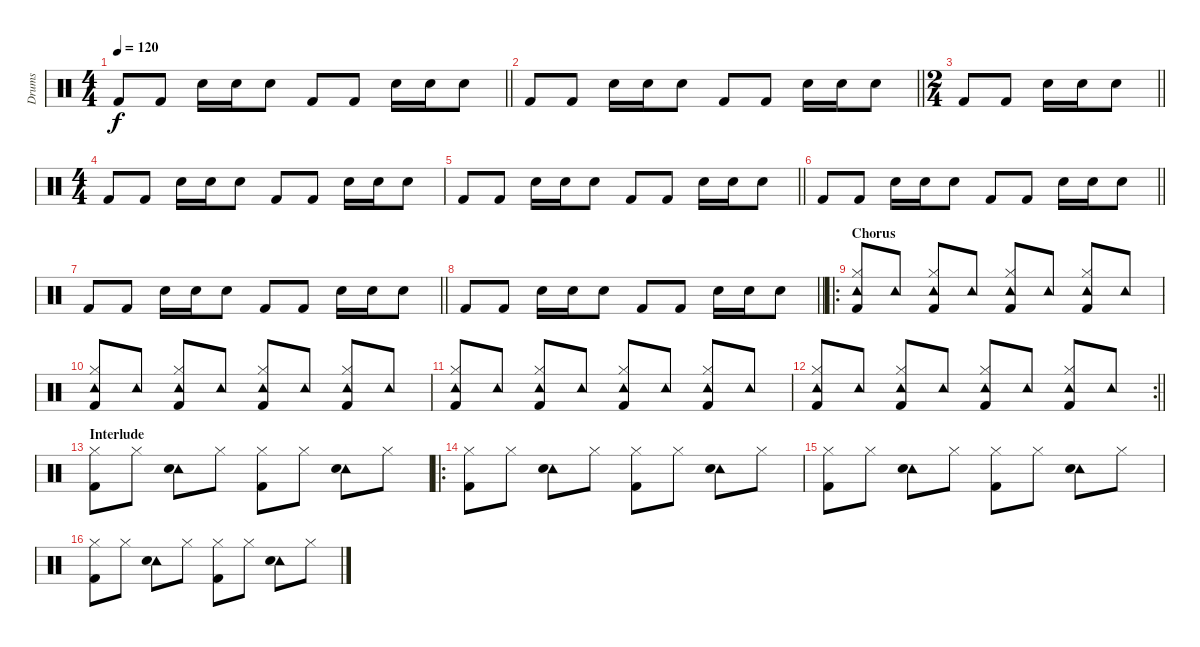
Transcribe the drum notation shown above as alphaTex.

\track ("Drums" "Drums") {instrument percussion}
\staff {score}
\articulation defaults
\ts (4 4)
\tempo 120
\clef neutral
\barLineRight lightlight
\ks c "Kick (hit) 2".8{dy f} "Kick (hit) 2".8 "Snare (hit) 2".16 "Snare (hit) 2".16 "Snare (hit) 2".8 "Kick (hit) 2".8 "Kick (hit) 2".8 "Snare (hit) 2".16 "Snare (hit) 2".16 "Snare (hit) 2".8
|
\barLineRight lightlight "Kick (hit) 2".8 "Kick (hit) 2".8 "Snare (hit) 2".16 "Snare (hit) 2".16 "Snare (hit) 2".8 "Kick (hit) 2".8 "Kick (hit) 2".8 "Snare (hit) 2".16 "Snare (hit) 2".16 "Snare (hit) 2".8
|
\ts (2 4)
\barLineRight lightlight "Kick (hit) 2".8 "Kick (hit) 2".8 "Snare (hit) 2".16 "Snare (hit) 2".16 "Snare (hit) 2".8
|
\ts (4 4)
"Kick (hit) 2".8 "Kick (hit) 2".8 "Snare (hit) 2".16 "Snare (hit) 2".16 "Snare (hit) 2".8 "Kick (hit) 2".8 "Kick (hit) 2".8 "Snare (hit) 2".16 "Snare (hit) 2".16 "Snare (hit) 2".8 |
\barLineRight lightlight "Kick (hit) 2".8 "Kick (hit) 2".8 "Snare (hit) 2".16 "Snare (hit) 2".16 "Snare (hit) 2".8 "Kick (hit) 2".8 "Kick (hit) 2".8 "Snare (hit) 2".16 "Snare (hit) 2".16 "Snare (hit) 2".8
|
\barLineRight lightlight "Kick (hit) 2".8 "Kick (hit) 2".8 "Snare (hit) 2".16 "Snare (hit) 2".16 "Snare (hit) 2".8 "Kick (hit) 2".8 "Kick (hit) 2".8 "Snare (hit) 2".16 "Snare (hit) 2".16 "Snare (hit) 2".8
|
\barLineRight lightlight "Kick (hit) 2".8 "Kick (hit) 2".8 "Snare (hit) 2".16 "Snare (hit) 2".16 "Snare (hit) 2".8 "Kick (hit) 2".8 "Kick (hit) 2".8 "Snare (hit) 2".16 "Snare (hit) 2".16 "Snare (hit) 2".8
|
\barLineRight lightlight "Kick (hit) 2".8 "Kick (hit) 2".8 "Snare (hit) 2".16 "Snare (hit) 2".16 "Snare (hit) 2".8 "Kick (hit) 2".8 "Kick (hit) 2".8 "Snare (hit) 2".16 "Snare (hit) 2".16 "Snare (hit) 2".8
|
\ro
\section ("" "Chorus")
("Hi-Hat (closed)" "Tambourine (hit)" "Kick (hit) 2").8 "Tambourine (hit)".8 ("Hi-Hat (closed)" "Tambourine (hit)" "Kick (hit) 2").8 "Tambourine (hit)".8 ("Hi-Hat (closed)" "Tambourine (hit)" "Kick (hit) 2").8 "Tambourine (hit)".8 ("Hi-Hat (closed)" "Tambourine (hit)" "Kick (hit) 2").8 "Tambourine (hit)".8 |
("Hi-Hat (closed)" "Tambourine (hit)" "Kick (hit) 2").8 "Tambourine (hit)".8 ("Hi-Hat (closed)" "Tambourine (hit)" "Kick (hit) 2").8 "Tambourine (hit)".8 ("Hi-Hat (closed)" "Tambourine (hit)" "Kick (hit) 2").8 "Tambourine (hit)".8 ("Hi-Hat (closed)" "Tambourine (hit)" "Kick (hit) 2").8 "Tambourine (hit)".8 |
("Hi-Hat (closed)" "Tambourine (hit)" "Kick (hit) 2").8 "Tambourine (hit)".8 ("Hi-Hat (closed)" "Tambourine (hit)" "Kick (hit) 2").8 "Tambourine (hit)".8 ("Hi-Hat (closed)" "Tambourine (hit)" "Kick (hit) 2").8 "Tambourine (hit)".8 ("Hi-Hat (closed)" "Tambourine (hit)" "Kick (hit) 2").8 "Tambourine (hit)".8 |
\rc 2
\barLineRight lightlight
("Hi-Hat (closed)" "Tambourine (hit)" "Kick (hit) 2").8 "Tambourine (hit)".8 ("Hi-Hat (closed)" "Tambourine (hit)" "Kick (hit) 2").8 "Tambourine (hit)".8 ("Hi-Hat (closed)" "Tambourine (hit)" "Kick (hit) 2").8 "Tambourine (hit)".8 ("Hi-Hat (closed)" "Tambourine (hit)" "Kick (hit) 2").8 "Tambourine (hit)".8 |
\section ("" "Interlude")
("Hi-Hat (closed)" "Kick (hit) 2").8 "Hi-Hat (closed)".8 ("Tambourine (hit)" "Snare (hit) 2").8 "Hi-Hat (closed)".8 ("Hi-Hat (closed)" "Kick (hit) 2").8 "Hi-Hat (closed)".8 ("Tambourine (hit)" "Snare (hit) 2").8 "Hi-Hat (closed)".8 |
\ro
("Hi-Hat (closed)" "Kick (hit) 2").8 "Hi-Hat (closed)".8 ("Tambourine (hit)" "Snare (hit) 2").8 "Hi-Hat (closed)".8 ("Hi-Hat (closed)" "Kick (hit) 2").8 "Hi-Hat (closed)".8 ("Tambourine (hit)" "Snare (hit) 2").8 "Hi-Hat (closed)".8 |
("Hi-Hat (closed)" "Kick (hit) 2").8 "Hi-Hat (closed)".8 ("Tambourine (hit)" "Snare (hit) 2").8 "Hi-Hat (closed)".8 ("Hi-Hat (closed)" "Kick (hit) 2").8 "Hi-Hat (closed)".8 ("Tambourine (hit)" "Snare (hit) 2").8 "Hi-Hat (closed)".8 |
("Hi-Hat (closed)" "Kick (hit) 2").8 "Hi-Hat (closed)".8 ("Tambourine (hit)" "Snare (hit) 2").8 "Hi-Hat (closed)".8 ("Hi-Hat (closed)" "Kick (hit) 2").8 "Hi-Hat (closed)".8 ("Tambourine (hit)" "Snare (hit) 2").8 "Hi-Hat (closed)".8
